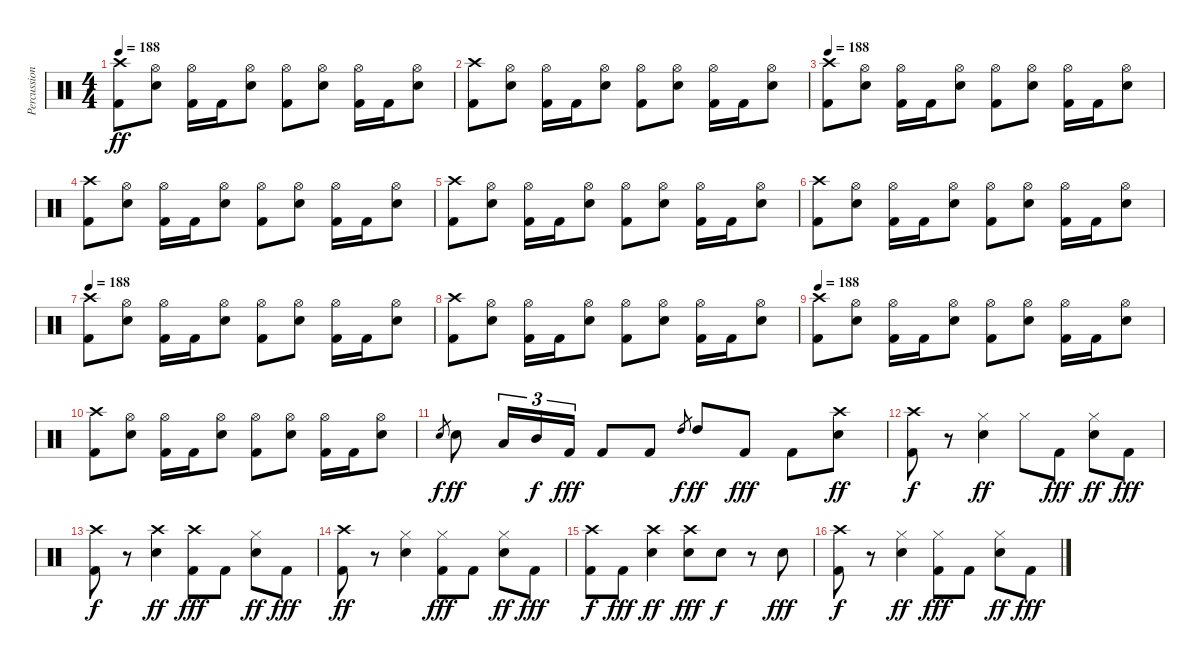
\track ("Percussion" "Percussion") {instrument percussion}
\staff {score}
\articulation defaults
\ts (4 4)
\tempo 188
\clef neutral
\ks c
("Crash high (hit)" "Kick (hit) 2").8{dy ff} ("Hi-Hat (open)" "Snare (hit) 2").8 ("Hi-Hat (open)" "Kick (hit) 2").16 "Kick (hit) 2".16 ("Hi-Hat (open)" "Snare (hit) 2").8 ("Hi-Hat (open)" "Kick (hit) 2").8 ("Hi-Hat (open)" "Snare (hit) 2").8 ("Hi-Hat (open)" "Kick (hit) 2").16 "Kick (hit) 2".16 ("Hi-Hat (open)" "Snare (hit) 2").8 |
("Crash high (hit)" "Kick (hit) 2").8 ("Hi-Hat (open)" "Snare (hit) 2").8 ("Hi-Hat (open)" "Kick (hit) 2").16 "Kick (hit) 2".16 ("Hi-Hat (open)" "Snare (hit) 2").8 ("Hi-Hat (open)" "Kick (hit) 2").8 ("Hi-Hat (open)" "Snare (hit) 2").8 ("Hi-Hat (open)" "Kick (hit) 2").16 "Kick (hit) 2".16 ("Hi-Hat (open)" "Snare (hit) 2").8 |
\tempo 188
("Crash high (hit)" "Kick (hit) 2").8 ("Hi-Hat (open)" "Snare (hit) 2").8 ("Hi-Hat (open)" "Kick (hit) 2").16 "Kick (hit) 2".16 ("Hi-Hat (open)" "Snare (hit) 2").8 ("Hi-Hat (open)" "Kick (hit) 2").8 ("Hi-Hat (open)" "Snare (hit) 2").8 ("Hi-Hat (open)" "Kick (hit) 2").16 "Kick (hit) 2".16 ("Hi-Hat (open)" "Snare (hit) 2").8 |
("Crash high (hit)" "Kick (hit) 2").8 ("Hi-Hat (open)" "Snare (hit) 2").8 ("Hi-Hat (open)" "Kick (hit) 2").16 "Kick (hit) 2".16 ("Hi-Hat (open)" "Snare (hit) 2").8 ("Hi-Hat (open)" "Kick (hit) 2").8 ("Hi-Hat (open)" "Snare (hit) 2").8 ("Hi-Hat (open)" "Kick (hit) 2").16 "Kick (hit) 2".16 ("Hi-Hat (open)" "Snare (hit) 2").8 |
("Crash high (hit)" "Kick (hit) 2").8 ("Hi-Hat (open)" "Snare (hit) 2").8 ("Hi-Hat (open)" "Kick (hit) 2").16 "Kick (hit) 2".16 ("Hi-Hat (open)" "Snare (hit) 2").8 ("Hi-Hat (open)" "Kick (hit) 2").8 ("Hi-Hat (open)" "Snare (hit) 2").8 ("Hi-Hat (open)" "Kick (hit) 2").16 "Kick (hit) 2".16 ("Hi-Hat (open)" "Snare (hit) 2").8 |
("Crash high (hit)" "Kick (hit) 2").8 ("Hi-Hat (open)" "Snare (hit) 2").8 ("Hi-Hat (open)" "Kick (hit) 2").16 "Kick (hit) 2".16 ("Hi-Hat (open)" "Snare (hit) 2").8 ("Hi-Hat (open)" "Kick (hit) 2").8 ("Hi-Hat (open)" "Snare (hit) 2").8 ("Hi-Hat (open)" "Kick (hit) 2").16 "Kick (hit) 2".16 ("Hi-Hat (open)" "Snare (hit) 2").8 |
\tempo 188
("Crash high (hit)" "Kick (hit) 2").8 ("Hi-Hat (open)" "Snare (hit) 2").8 ("Hi-Hat (open)" "Kick (hit) 2").16 "Kick (hit) 2".16 ("Hi-Hat (open)" "Snare (hit) 2").8 ("Hi-Hat (open)" "Kick (hit) 2").8 ("Hi-Hat (open)" "Snare (hit) 2").8 ("Hi-Hat (open)" "Kick (hit) 2").16 "Kick (hit) 2".16 ("Hi-Hat (open)" "Snare (hit) 2").8 |
("Crash high (hit)" "Kick (hit) 2").8 ("Hi-Hat (open)" "Snare (hit) 2").8 ("Hi-Hat (open)" "Kick (hit) 2").16 "Kick (hit) 2".16 ("Hi-Hat (open)" "Snare (hit) 2").8 ("Hi-Hat (open)" "Kick (hit) 2").8 ("Hi-Hat (open)" "Snare (hit) 2").8 ("Hi-Hat (open)" "Kick (hit) 2").16 "Kick (hit) 2".16 ("Hi-Hat (open)" "Snare (hit) 2").8 |
\tempo 188
("Crash high (hit)" "Kick (hit) 2").8 ("Hi-Hat (open)" "Snare (hit) 2").8 ("Hi-Hat (open)" "Kick (hit) 2").16 "Kick (hit) 2".16 ("Hi-Hat (open)" "Snare (hit) 2").8 ("Hi-Hat (open)" "Kick (hit) 2").8 ("Hi-Hat (open)" "Snare (hit) 2").8 ("Hi-Hat (open)" "Kick (hit) 2").16 "Kick (hit) 2".16 ("Hi-Hat (open)" "Snare (hit) 2").8 |
("Crash high (hit)" "Kick (hit) 2").8 ("Hi-Hat (open)" "Snare (hit) 2").8 ("Hi-Hat (open)" "Kick (hit) 2").16 "Kick (hit) 2".16 ("Hi-Hat (open)" "Snare (hit) 2").8 ("Hi-Hat (open)" "Kick (hit) 2").8 ("Hi-Hat (open)" "Snare (hit) 2").8 ("Hi-Hat (open)" "Kick (hit) 2").16 "Kick (hit) 2".16 ("Hi-Hat (open)" "Snare (hit) 2").8 |
"Snare (hit) 2"{sl}.8{gr dy f} "Snare (hit) 2".8{dy ff} "Low Tom (hit)".16{tu (3 2)} "Mid Tom (hit)".16{tu (3 2) dy f} "Kick (hit) 2".16{tu (3 2) dy fff} "Kick (hit) 2".8 "Kick (hit) 2".8 "High Tom (hit)"{sl}.8{gr dy f} "High Tom (hit)".8{dy ff} "Kick (hit) 2".8{dy fff} "Kick (hit) 2".8 ("Crash high (hit)" "Snare (hit) 2").8{dy ff} |
("Crash high (hit)" "Kick (hit) 2").8{dy f} r.8 ("Hi-Hat (closed)" "Snare (hit) 2").4{dy ff} "Hi-Hat (closed)".8 "Kick (hit) 2".8{dy fff} ("Hi-Hat (closed)" "Snare (hit) 2").8{dy ff} "Kick (hit) 2".8{dy fff} |
("Crash high (hit)" "Kick (hit) 2").8{dy f} r.8 ("Crash high (hit)" "Snare (hit) 2").4{dy ff} ("Crash high (hit)" "Kick (hit) 2").8{dy fff} "Kick (hit) 2".8 ("Hi-Hat (closed)" "Snare (hit) 2").8{dy ff} "Kick (hit) 2".8{dy fff} |
("Crash high (hit)" "Kick (hit) 2").8{dy ff} r.8 ("Hi-Hat (closed)" "Snare (hit) 2").4 ("Hi-Hat (closed)" "Kick (hit) 2").8{dy fff} "Kick (hit) 2".8 ("Hi-Hat (closed)" "Snare (hit) 2").8{dy ff} "Kick (hit) 2".8{dy fff} |
("Crash high (hit)" "Kick (hit) 2").8{dy f} "Kick (hit) 2".8{dy fff} ("Crash high (hit)" "Snare (hit) 2").4{dy ff} ("Crash high (hit)" "Snare (hit) 2").8{dy fff} "Snare (hit) 2".8{dy f} r.8 "Snare (hit) 2".8{dy fff} |
("Crash high (hit)" "Kick (hit) 2").8{dy f} r.8 ("Hi-Hat (closed)" "Snare (hit) 2").4{dy ff} ("Hi-Hat (closed)" "Kick (hit) 2").8{dy fff} "Kick (hit) 2".8 ("Hi-Hat (closed)" "Snare (hit) 2").8{dy ff} "Kick (hit) 2".8{dy fff}
